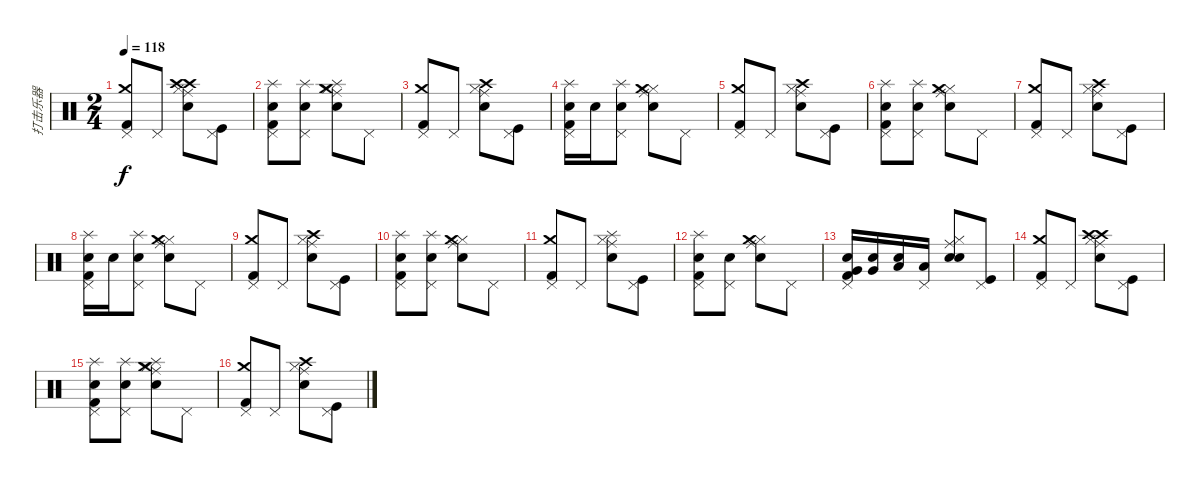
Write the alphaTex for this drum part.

\track ("打击乐器" "打击乐器") {instrument percussion}
\staff {score}
\articulation defaults
\ts (2 4)
\tempo 118
\clef neutral
\ks c
("Pedal Hi-Hat (hit)" "Crash medium (hit)" "Kick (hit) 2").8{dy f} "Pedal Hi-Hat (hit)".8 ("Crash high (hit)" "Ride (middle)" "Hi-Hat (closed)" "Crash high (hit)" "Snare (hit) 2").8 ("Pedal Hi-Hat (hit)" "Kick (hit)").8 |
("Snare (hit) 2" "Pedal Hi-Hat (hit)" "Splash (hit)" "Kick (hit) 2").8 ("Snare (hit) 2" "Pedal Hi-Hat (hit)" "Splash (hit)").8 ("Splash (hit)" "Ride (middle)" "Hi-Hat (closed)" "Crash medium (hit)" "Snare (hit) 2").8 "Pedal Hi-Hat (hit)".8 |
("Pedal Hi-Hat (hit)" "Crash medium (hit)" "Kick (hit) 2").8 "Pedal Hi-Hat (hit)".8 ("Ride (middle)" "Hi-Hat (closed)" "Crash high (hit)" "Snare (hit) 2").8 ("Pedal Hi-Hat (hit)" "Kick (hit)").8 |
("Snare (hit) 2" "Pedal Hi-Hat (hit)" "Splash (hit)" "Kick (hit) 2").16 "Snare (hit) 2".16 ("Snare (hit) 2" "Pedal Hi-Hat (hit)" "Splash (hit)").8 ("Ride (middle)" "Hi-Hat (closed)" "Crash medium (hit)" "Snare (hit) 2").8 "Pedal Hi-Hat (hit)".8 |
("Pedal Hi-Hat (hit)" "Crash medium (hit)" "Kick (hit) 2").8 "Pedal Hi-Hat (hit)".8 ("Ride (middle)" "Hi-Hat (closed)" "Crash high (hit)" "Snare (hit) 2").8 ("Pedal Hi-Hat (hit)" "Kick (hit)").8 |
("Snare (hit) 2" "Pedal Hi-Hat (hit)" "Splash (hit)" "Kick (hit) 2").8 ("Snare (hit) 2" "Pedal Hi-Hat (hit)" "Splash (hit)").8 ("Ride (middle)" "Hi-Hat (closed)" "Crash medium (hit)" "Snare (hit) 2").8 "Pedal Hi-Hat (hit)".8 |
("Pedal Hi-Hat (hit)" "Crash medium (hit)" "Kick (hit) 2").8 "Pedal Hi-Hat (hit)".8 ("Ride (middle)" "Hi-Hat (closed)" "Crash high (hit)" "Snare (hit) 2").8 ("Pedal Hi-Hat (hit)" "Kick (hit)").8 |
("Snare (hit) 2" "Pedal Hi-Hat (hit)" "Splash (hit)" "Kick (hit) 2").16 "Snare (hit) 2".16 ("Snare (hit) 2" "Pedal Hi-Hat (hit)" "Splash (hit)").8 ("Ride (middle)" "Hi-Hat (closed)" "Crash medium (hit)" "Snare (hit) 2").8 "Pedal Hi-Hat (hit)".8 |
("Pedal Hi-Hat (hit)" "Crash medium (hit)" "Kick (hit) 2").8 "Pedal Hi-Hat (hit)".8 ("Ride (middle)" "Hi-Hat (closed)" "Crash high (hit)" "Snare (hit) 2").8 ("Pedal Hi-Hat (hit)" "Kick (hit)").8 |
("Snare (hit) 2" "Pedal Hi-Hat (hit)" "Splash (hit)" "Kick (hit) 2").8 ("Snare (hit) 2" "Pedal Hi-Hat (hit)" "Splash (hit)").8 ("Ride (middle)" "Hi-Hat (closed)" "Crash medium (hit)" "Snare (hit) 2").8 "Pedal Hi-Hat (hit)".8 |
("Pedal Hi-Hat (hit)" "Crash medium (hit)" "Kick (hit) 2").8 "Pedal Hi-Hat (hit)".8 ("Ride (middle)" "Hi-Hat (closed)" "Splash (hit)" "Snare (hit) 2").8 ("Pedal Hi-Hat (hit)" "Kick (hit)").8 |
("Snare (hit) 2" "Pedal Hi-Hat (hit)" "Splash (hit)" "Kick (hit) 2").8 ("Snare (hit) 2" "Pedal Hi-Hat (hit)").8 ("Ride (middle)" "Hi-Hat (closed)" "Crash medium (hit)" "Snare (hit) 2").8 "Pedal Hi-Hat (hit)".8 |
("Very Low Tom (hit)" "Pedal Hi-Hat (hit)" "Electric Snare (hit)" "Kick (hit) 2").16 ("Very Low Tom (hit)" "Electric Snare (hit)").16 ("Low Floor Tom (hit)" "Electric Snare (hit)").16 ("Low Floor Tom (hit)" "Pedal Hi-Hat (hit)").16 ("Ride (middle)" "Hi-Hat (closed)" "Electric Snare (hit)" "Snare (hit) 2").8 ("Pedal Hi-Hat (hit)" "Kick (hit)").8 |
("Pedal Hi-Hat (hit)" "Crash medium (hit)" "Kick (hit) 2").8 "Pedal Hi-Hat (hit)".8 ("Crash high (hit)" "Ride (middle)" "Hi-Hat (closed)" "Crash high (hit)" "Snare (hit) 2").8 ("Pedal Hi-Hat (hit)" "Kick (hit)").8 |
("Snare (hit) 2" "Pedal Hi-Hat (hit)" "Splash (hit)" "Kick (hit) 2").8 ("Snare (hit) 2" "Pedal Hi-Hat (hit)" "Splash (hit)").8 ("Splash (hit)" "Ride (middle)" "Hi-Hat (closed)" "Crash medium (hit)" "Snare (hit) 2").8 "Pedal Hi-Hat (hit)".8 |
("Pedal Hi-Hat (hit)" "Crash medium (hit)" "Kick (hit) 2").8 "Pedal Hi-Hat (hit)".8 ("Ride (middle)" "Hi-Hat (closed)" "Crash high (hit)" "Snare (hit) 2").8 ("Pedal Hi-Hat (hit)" "Kick (hit)").8
